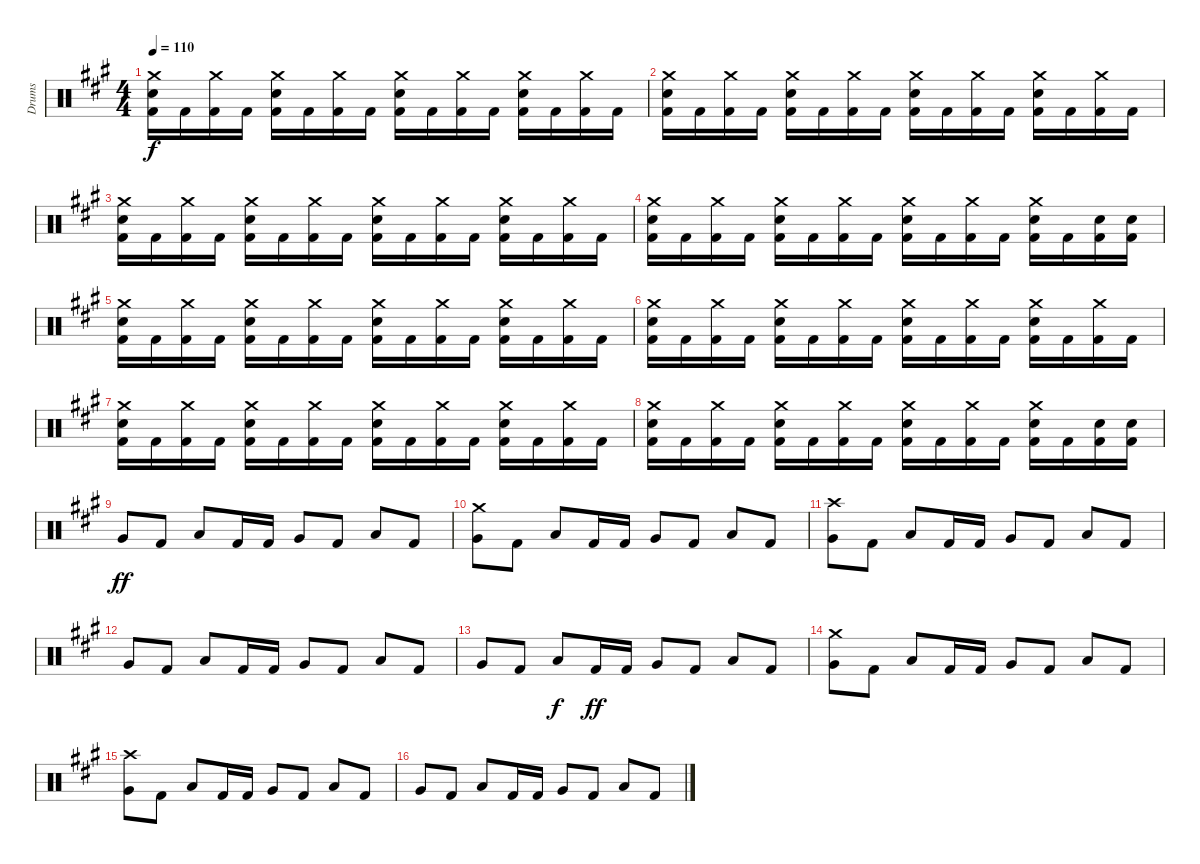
\track ("Drums" "Drums") {instrument percussion}
\staff {score}
\articulation defaults
\ts (4 4)
\tempo 110
\clef neutral
\ks a
("Crash medium (hit)" "Electric Snare (hit)" "Kick (hit) 2").16{dy f} "Kick (hit) 2".16 ("Crash medium (hit)" "Kick (hit) 2").16 "Kick (hit) 2".16 ("Crash medium (hit)" "Electric Snare (hit)" "Kick (hit) 2").16 "Kick (hit) 2".16 ("Crash medium (hit)" "Kick (hit) 2").16 "Kick (hit) 2".16 ("Crash medium (hit)" "Electric Snare (hit)" "Kick (hit) 2").16 "Kick (hit) 2".16 ("Crash medium (hit)" "Kick (hit) 2").16 "Kick (hit) 2".16 ("Crash medium (hit)" "Electric Snare (hit)" "Kick (hit) 2").16 "Kick (hit) 2".16 ("Crash medium (hit)" "Kick (hit) 2").16 "Kick (hit) 2".16 |
("Crash medium (hit)" "Electric Snare (hit)" "Kick (hit) 2").16 "Kick (hit) 2".16 ("Crash medium (hit)" "Kick (hit) 2").16 "Kick (hit) 2".16 ("Crash medium (hit)" "Electric Snare (hit)" "Kick (hit) 2").16 "Kick (hit) 2".16 ("Crash medium (hit)" "Kick (hit) 2").16 "Kick (hit) 2".16 ("Crash medium (hit)" "Electric Snare (hit)" "Kick (hit) 2").16 "Kick (hit) 2".16 ("Crash medium (hit)" "Kick (hit) 2").16 "Kick (hit) 2".16 ("Crash medium (hit)" "Electric Snare (hit)" "Kick (hit) 2").16 "Kick (hit) 2".16 ("Crash medium (hit)" "Kick (hit) 2").16 "Kick (hit) 2".16 |
("Crash medium (hit)" "Electric Snare (hit)" "Kick (hit) 2").16 "Kick (hit) 2".16 ("Crash medium (hit)" "Kick (hit) 2").16 "Kick (hit) 2".16 ("Crash medium (hit)" "Electric Snare (hit)" "Kick (hit) 2").16 "Kick (hit) 2".16 ("Crash medium (hit)" "Kick (hit) 2").16 "Kick (hit) 2".16 ("Crash medium (hit)" "Electric Snare (hit)" "Kick (hit) 2").16 "Kick (hit) 2".16 ("Crash medium (hit)" "Kick (hit) 2").16 "Kick (hit) 2".16 ("Crash medium (hit)" "Electric Snare (hit)" "Kick (hit) 2").16 "Kick (hit) 2".16 ("Crash medium (hit)" "Kick (hit) 2").16 "Kick (hit) 2".16 |
("Crash medium (hit)" "Electric Snare (hit)" "Kick (hit) 2").16 "Kick (hit) 2".16 ("Crash medium (hit)" "Kick (hit) 2").16 "Kick (hit) 2".16 ("Crash medium (hit)" "Electric Snare (hit)" "Kick (hit) 2").16 "Kick (hit) 2".16 ("Crash medium (hit)" "Kick (hit) 2").16 "Kick (hit) 2".16 ("Crash medium (hit)" "Electric Snare (hit)" "Kick (hit) 2").16 "Kick (hit) 2".16 ("Crash medium (hit)" "Kick (hit) 2").16 "Kick (hit) 2".16 ("Crash medium (hit)" "Electric Snare (hit)" "Kick (hit) 2").16 "Kick (hit) 2".16 ("Electric Snare (hit)" "Kick (hit) 2").16 ("Electric Snare (hit)" "Kick (hit) 2").16 |
("Crash medium (hit)" "Electric Snare (hit)" "Kick (hit) 2").16 "Kick (hit) 2".16 ("Crash medium (hit)" "Kick (hit) 2").16 "Kick (hit) 2".16 ("Crash medium (hit)" "Electric Snare (hit)" "Kick (hit) 2").16 "Kick (hit) 2".16 ("Crash medium (hit)" "Kick (hit) 2").16 "Kick (hit) 2".16 ("Crash medium (hit)" "Electric Snare (hit)" "Kick (hit) 2").16 "Kick (hit) 2".16 ("Crash medium (hit)" "Kick (hit) 2").16 "Kick (hit) 2".16 ("Crash medium (hit)" "Electric Snare (hit)" "Kick (hit) 2").16 "Kick (hit) 2".16 ("Crash medium (hit)" "Kick (hit) 2").16 "Kick (hit) 2".16 |
("Crash medium (hit)" "Electric Snare (hit)" "Kick (hit) 2").16 "Kick (hit) 2".16 ("Crash medium (hit)" "Kick (hit) 2").16 "Kick (hit) 2".16 ("Crash medium (hit)" "Electric Snare (hit)" "Kick (hit) 2").16 "Kick (hit) 2".16 ("Crash medium (hit)" "Kick (hit) 2").16 "Kick (hit) 2".16 ("Crash medium (hit)" "Electric Snare (hit)" "Kick (hit) 2").16 "Kick (hit) 2".16 ("Crash medium (hit)" "Kick (hit) 2").16 "Kick (hit) 2".16 ("Crash medium (hit)" "Electric Snare (hit)" "Kick (hit) 2").16 "Kick (hit) 2".16 ("Crash medium (hit)" "Kick (hit) 2").16 "Kick (hit) 2".16 |
("Crash medium (hit)" "Electric Snare (hit)" "Kick (hit) 2").16 "Kick (hit) 2".16 ("Crash medium (hit)" "Kick (hit) 2").16 "Kick (hit) 2".16 ("Crash medium (hit)" "Electric Snare (hit)" "Kick (hit) 2").16 "Kick (hit) 2".16 ("Crash medium (hit)" "Kick (hit) 2").16 "Kick (hit) 2".16 ("Crash medium (hit)" "Electric Snare (hit)" "Kick (hit) 2").16 "Kick (hit) 2".16 ("Crash medium (hit)" "Kick (hit) 2").16 "Kick (hit) 2".16 ("Crash medium (hit)" "Electric Snare (hit)" "Kick (hit) 2").16 "Kick (hit) 2".16 ("Crash medium (hit)" "Kick (hit) 2").16 "Kick (hit) 2".16 |
("Crash medium (hit)" "Electric Snare (hit)" "Kick (hit) 2").16 "Kick (hit) 2".16 ("Crash medium (hit)" "Kick (hit) 2").16 "Kick (hit) 2".16 ("Crash medium (hit)" "Electric Snare (hit)" "Kick (hit) 2").16 "Kick (hit) 2".16 ("Crash medium (hit)" "Kick (hit) 2").16 "Kick (hit) 2".16 ("Crash medium (hit)" "Electric Snare (hit)" "Kick (hit) 2").16 "Kick (hit) 2".16 ("Crash medium (hit)" "Kick (hit) 2").16 "Kick (hit) 2".16 ("Crash medium (hit)" "Electric Snare (hit)" "Kick (hit) 2").16 "Kick (hit) 2".16 ("Electric Snare (hit)" "Kick (hit) 2").16 ("Electric Snare (hit)" "Kick (hit) 2").16 |
"Very Low Tom (hit)".8{dy ff} "Kick (hit) 2".8 "Low Tom (hit)".8 "Kick (hit) 2".16 "Kick (hit) 2".16 "Very Low Tom (hit)".8 "Kick (hit) 2".8 "Low Tom (hit)".8 "Kick (hit) 2".8 |
("Crash medium (hit)" "Very Low Tom (hit)").8 "Kick (hit) 2".8 "Low Tom (hit)".8 "Kick (hit) 2".16 "Kick (hit) 2".16 "Very Low Tom (hit)".8 "Kick (hit) 2".8 "Low Tom (hit)".8 "Kick (hit) 2".8 |
("Crash high (hit)" "Very Low Tom (hit)").8 "Kick (hit) 2".8 "Low Tom (hit)".8 "Kick (hit) 2".16 "Kick (hit) 2".16 "Very Low Tom (hit)".8 "Kick (hit) 2".8 "Low Tom (hit)".8 "Kick (hit) 2".8 |
"Very Low Tom (hit)".8 "Kick (hit) 2".8 "Low Tom (hit)".8 "Kick (hit) 2".16 "Kick (hit) 2".16 "Very Low Tom (hit)".8 "Kick (hit) 2".8 "Low Tom (hit)".8 "Kick (hit) 2".8 |
"Very Low Tom (hit)".8 "Kick (hit) 2".8 "Low Tom (hit)".8{dy f} "Kick (hit) 2".16{dy ff} "Kick (hit) 2".16 "Very Low Tom (hit)".8 "Kick (hit) 2".8 "Low Tom (hit)".8 "Kick (hit) 2".8 |
("Crash medium (hit)" "Very Low Tom (hit)").8 "Kick (hit) 2".8 "Low Tom (hit)".8 "Kick (hit) 2".16 "Kick (hit) 2".16 "Very Low Tom (hit)".8 "Kick (hit) 2".8 "Low Tom (hit)".8 "Kick (hit) 2".8 |
("Crash high (hit)" "Very Low Tom (hit)").8 "Kick (hit) 2".8 "Low Tom (hit)".8 "Kick (hit) 2".16 "Kick (hit) 2".16 "Very Low Tom (hit)".8 "Kick (hit) 2".8 "Low Tom (hit)".8 "Kick (hit) 2".8 |
"Very Low Tom (hit)".8 "Kick (hit) 2".8 "Low Tom (hit)".8 "Kick (hit) 2".16 "Kick (hit) 2".16 "Very Low Tom (hit)".8 "Kick (hit) 2".8 "Low Tom (hit)".8 "Kick (hit) 2".8
